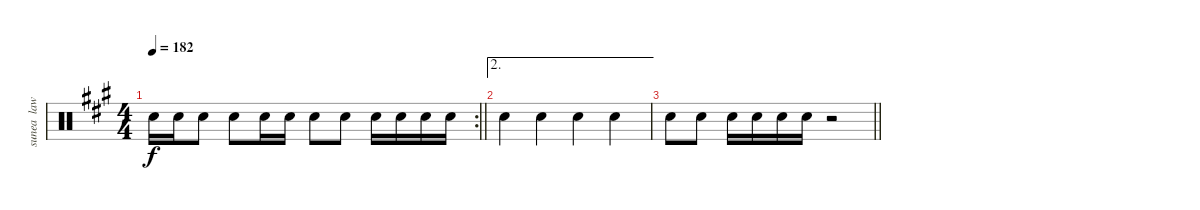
\track ("sunea  law tam" "sunea  law") {instrument percussion}
\staff {score}
\articulation defaults
\rc 2
\ts (4 4)
\tempo 182
\clef neutral
\barLineRight lightlight
\ks f#minor "Snare (hit) 2".16{dy f} "Snare (hit) 2".16 "Snare (hit) 2".8 "Snare (hit) 2".8 "Snare (hit) 2".16 "Snare (hit) 2".16 "Snare (hit) 2".8 "Snare (hit) 2".8 "Snare (hit) 2".16 "Snare (hit) 2".16 "Snare (hit) 2".16 "Snare (hit) 2".16
|
\ae 2 "Snare (hit) 2".4 "Snare (hit) 2".4 "Snare (hit) 2".4 "Snare (hit) 2".4
|
\barLineRight lightlight "Snare (hit) 2".8 "Snare (hit) 2".8 "Snare (hit) 2".16 "Snare (hit) 2".16 "Snare (hit) 2".16 "Snare (hit) 2".16
r.2
